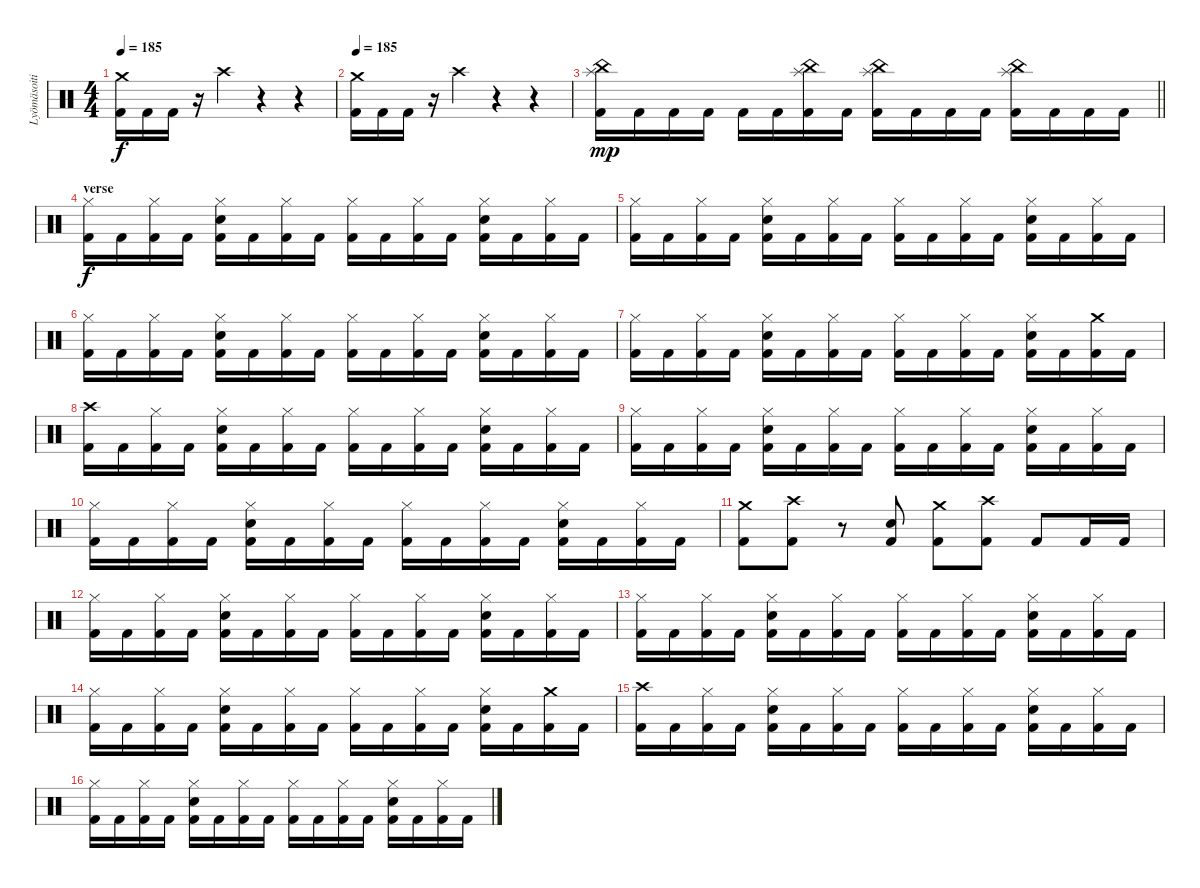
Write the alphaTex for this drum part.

\track ("Lyömäsoitin" "Lyömäsoiti") {instrument percussion}
\staff {score}
\articulation defaults
\ts (4 4)
\tempo 185
\clef neutral
\ks c
("Crash medium (hit)" "Kick (hit) 2").16{dy f} "Kick (hit) 2".16 "Kick (hit) 2".16 r.16 "Crash high (hit)".4 r.4 r.4 |
\tempo 185
("Crash medium (hit)" "Kick (hit) 2").16 "Kick (hit) 2".16 "Kick (hit) 2".16 r.16 "Crash high (hit)".4 r.4 r.4 |
\barLineRight lightlight
("Splash (hit)" "China (hit)" "Kick (hit) 2").16{dy mp} "Kick (hit) 2".16 "Kick (hit) 2".16 "Kick (hit) 2".16 "Kick (hit) 2".16 "Kick (hit) 2".16 ("Splash (hit)" "China (hit)" "Kick (hit) 2").16 "Kick (hit) 2".16 ("Splash (hit)" "China (hit)" "Kick (hit) 2").16 "Kick (hit) 2".16 "Kick (hit) 2".16 "Kick (hit) 2".16 ("Splash (hit)" "China (hit)" "Kick (hit) 2").16 "Kick (hit) 2".16 "Kick (hit) 2".16 "Kick (hit) 2".16 |
\section ("" "verse")
("Hi-Hat (closed)" "Kick (hit) 2").16{dy f} "Kick (hit) 2".16 ("Hi-Hat (closed)" "Kick (hit) 2").16 "Kick (hit) 2".16 ("Hi-Hat (closed)" "Electric Snare (hit)" "Kick (hit) 2").16 "Kick (hit) 2".16 ("Hi-Hat (closed)" "Kick (hit) 2").16 "Kick (hit) 2".16 ("Hi-Hat (closed)" "Kick (hit) 2").16 "Kick (hit) 2".16 ("Hi-Hat (closed)" "Kick (hit) 2").16 "Kick (hit) 2".16 ("Hi-Hat (closed)" "Electric Snare (hit)" "Kick (hit) 2").16 "Kick (hit) 2".16 ("Hi-Hat (closed)" "Kick (hit) 2").16 "Kick (hit) 2".16 |
("Hi-Hat (closed)" "Kick (hit) 2").16 "Kick (hit) 2".16 ("Hi-Hat (closed)" "Kick (hit) 2").16 "Kick (hit) 2".16 ("Hi-Hat (closed)" "Electric Snare (hit)" "Kick (hit) 2").16 "Kick (hit) 2".16 ("Hi-Hat (closed)" "Kick (hit) 2").16 "Kick (hit) 2".16 ("Hi-Hat (closed)" "Kick (hit) 2").16 "Kick (hit) 2".16 ("Hi-Hat (closed)" "Kick (hit) 2").16 "Kick (hit) 2".16 ("Hi-Hat (closed)" "Electric Snare (hit)" "Kick (hit) 2").16 "Kick (hit) 2".16 ("Hi-Hat (closed)" "Kick (hit) 2").16 "Kick (hit) 2".16 |
("Hi-Hat (closed)" "Kick (hit) 2").16 "Kick (hit) 2".16 ("Hi-Hat (closed)" "Kick (hit) 2").16 "Kick (hit) 2".16 ("Hi-Hat (closed)" "Electric Snare (hit)" "Kick (hit) 2").16 "Kick (hit) 2".16 ("Hi-Hat (closed)" "Kick (hit) 2").16 "Kick (hit) 2".16 ("Hi-Hat (closed)" "Kick (hit) 2").16 "Kick (hit) 2".16 ("Hi-Hat (closed)" "Kick (hit) 2").16 "Kick (hit) 2".16 ("Hi-Hat (closed)" "Electric Snare (hit)" "Kick (hit) 2").16 "Kick (hit) 2".16 ("Hi-Hat (closed)" "Kick (hit) 2").16 "Kick (hit) 2".16 |
("Hi-Hat (closed)" "Kick (hit) 2").16 "Kick (hit) 2".16 ("Hi-Hat (closed)" "Kick (hit) 2").16 "Kick (hit) 2".16 ("Hi-Hat (closed)" "Electric Snare (hit)" "Kick (hit) 2").16 "Kick (hit) 2".16 ("Hi-Hat (closed)" "Kick (hit) 2").16 "Kick (hit) 2".16 ("Hi-Hat (closed)" "Kick (hit) 2").16 "Kick (hit) 2".16 ("Hi-Hat (closed)" "Kick (hit) 2").16 "Kick (hit) 2".16 ("Hi-Hat (closed)" "Electric Snare (hit)" "Kick (hit) 2").16 "Kick (hit) 2".16 ("Crash medium (hit)" "Kick (hit) 2").16 "Kick (hit) 2".16 |
("Crash high (hit)" "Kick (hit) 2").16 "Kick (hit) 2".16 ("Hi-Hat (closed)" "Kick (hit) 2").16 "Kick (hit) 2".16 ("Hi-Hat (closed)" "Electric Snare (hit)" "Kick (hit) 2").16 "Kick (hit) 2".16 ("Hi-Hat (closed)" "Kick (hit) 2").16 "Kick (hit) 2".16 ("Hi-Hat (closed)" "Kick (hit) 2").16 "Kick (hit) 2".16 ("Hi-Hat (closed)" "Kick (hit) 2").16 "Kick (hit) 2".16 ("Hi-Hat (closed)" "Electric Snare (hit)" "Kick (hit) 2").16 "Kick (hit) 2".16 ("Hi-Hat (closed)" "Kick (hit) 2").16 "Kick (hit) 2".16 |
("Hi-Hat (closed)" "Kick (hit) 2").16 "Kick (hit) 2".16 ("Hi-Hat (closed)" "Kick (hit) 2").16 "Kick (hit) 2".16 ("Hi-Hat (closed)" "Electric Snare (hit)" "Kick (hit) 2").16 "Kick (hit) 2".16 ("Hi-Hat (closed)" "Kick (hit) 2").16 "Kick (hit) 2".16 ("Hi-Hat (closed)" "Kick (hit) 2").16 "Kick (hit) 2".16 ("Hi-Hat (closed)" "Kick (hit) 2").16 "Kick (hit) 2".16 ("Hi-Hat (closed)" "Electric Snare (hit)" "Kick (hit) 2").16 "Kick (hit) 2".16 ("Hi-Hat (closed)" "Kick (hit) 2").16 "Kick (hit) 2".16 |
("Hi-Hat (closed)" "Kick (hit) 2").16 "Kick (hit) 2".16 ("Hi-Hat (closed)" "Kick (hit) 2").16 "Kick (hit) 2".16 ("Hi-Hat (closed)" "Electric Snare (hit)" "Kick (hit) 2").16 "Kick (hit) 2".16 ("Hi-Hat (closed)" "Kick (hit) 2").16 "Kick (hit) 2".16 ("Hi-Hat (closed)" "Kick (hit) 2").16 "Kick (hit) 2".16 ("Hi-Hat (closed)" "Kick (hit) 2").16 "Kick (hit) 2".16 ("Hi-Hat (closed)" "Electric Snare (hit)" "Kick (hit) 2").16 "Kick (hit) 2".16 ("Hi-Hat (closed)" "Kick (hit) 2").16 "Kick (hit) 2".16 |
("Crash medium (hit)" "Kick (hit) 2").8 ("Crash high (hit)" "Kick (hit) 2").8 r.8 ("Electric Snare (hit)" "Kick (hit) 2").8 ("Crash medium (hit)" "Kick (hit) 2").8 ("Crash high (hit)" "Kick (hit) 2").8 "Kick (hit) 2".8 "Kick (hit) 2".16 "Kick (hit) 2".16 |
("Hi-Hat (closed)" "Kick (hit) 2").16 "Kick (hit) 2".16 ("Hi-Hat (closed)" "Kick (hit) 2").16 "Kick (hit) 2".16 ("Hi-Hat (closed)" "Electric Snare (hit)" "Kick (hit) 2").16 "Kick (hit) 2".16 ("Hi-Hat (closed)" "Kick (hit) 2").16 "Kick (hit) 2".16 ("Hi-Hat (closed)" "Kick (hit) 2").16 "Kick (hit) 2".16 ("Hi-Hat (closed)" "Kick (hit) 2").16 "Kick (hit) 2".16 ("Hi-Hat (closed)" "Electric Snare (hit)" "Kick (hit) 2").16 "Kick (hit) 2".16 ("Hi-Hat (closed)" "Kick (hit) 2").16 "Kick (hit) 2".16 |
("Hi-Hat (closed)" "Kick (hit) 2").16 "Kick (hit) 2".16 ("Hi-Hat (closed)" "Kick (hit) 2").16 "Kick (hit) 2".16 ("Hi-Hat (closed)" "Electric Snare (hit)" "Kick (hit) 2").16 "Kick (hit) 2".16 ("Hi-Hat (closed)" "Kick (hit) 2").16 "Kick (hit) 2".16 ("Hi-Hat (closed)" "Kick (hit) 2").16 "Kick (hit) 2".16 ("Hi-Hat (closed)" "Kick (hit) 2").16 "Kick (hit) 2".16 ("Hi-Hat (closed)" "Electric Snare (hit)" "Kick (hit) 2").16 "Kick (hit) 2".16 ("Hi-Hat (closed)" "Kick (hit) 2").16 "Kick (hit) 2".16 |
("Hi-Hat (closed)" "Kick (hit) 2").16 "Kick (hit) 2".16 ("Hi-Hat (closed)" "Kick (hit) 2").16 "Kick (hit) 2".16 ("Hi-Hat (closed)" "Electric Snare (hit)" "Kick (hit) 2").16 "Kick (hit) 2".16 ("Hi-Hat (closed)" "Kick (hit) 2").16 "Kick (hit) 2".16 ("Hi-Hat (closed)" "Kick (hit) 2").16 "Kick (hit) 2".16 ("Hi-Hat (closed)" "Kick (hit) 2").16 "Kick (hit) 2".16 ("Hi-Hat (closed)" "Electric Snare (hit)" "Kick (hit) 2").16 "Kick (hit) 2".16 ("Crash medium (hit)" "Kick (hit) 2").16 "Kick (hit) 2".16 |
("Crash high (hit)" "Kick (hit) 2").16 "Kick (hit) 2".16 ("Hi-Hat (closed)" "Kick (hit) 2").16 "Kick (hit) 2".16 ("Hi-Hat (closed)" "Electric Snare (hit)" "Kick (hit) 2").16 "Kick (hit) 2".16 ("Hi-Hat (closed)" "Kick (hit) 2").16 "Kick (hit) 2".16 ("Hi-Hat (closed)" "Kick (hit) 2").16 "Kick (hit) 2".16 ("Hi-Hat (closed)" "Kick (hit) 2").16 "Kick (hit) 2".16 ("Hi-Hat (closed)" "Electric Snare (hit)" "Kick (hit) 2").16 "Kick (hit) 2".16 ("Hi-Hat (closed)" "Kick (hit) 2").16 "Kick (hit) 2".16 |
("Hi-Hat (closed)" "Kick (hit) 2").16 "Kick (hit) 2".16 ("Hi-Hat (closed)" "Kick (hit) 2").16 "Kick (hit) 2".16 ("Hi-Hat (closed)" "Electric Snare (hit)" "Kick (hit) 2").16 "Kick (hit) 2".16 ("Hi-Hat (closed)" "Kick (hit) 2").16 "Kick (hit) 2".16 ("Hi-Hat (closed)" "Kick (hit) 2").16 "Kick (hit) 2".16 ("Hi-Hat (closed)" "Kick (hit) 2").16 "Kick (hit) 2".16 ("Hi-Hat (closed)" "Electric Snare (hit)" "Kick (hit) 2").16 "Kick (hit) 2".16 ("Hi-Hat (closed)" "Kick (hit) 2").16 "Kick (hit) 2".16
